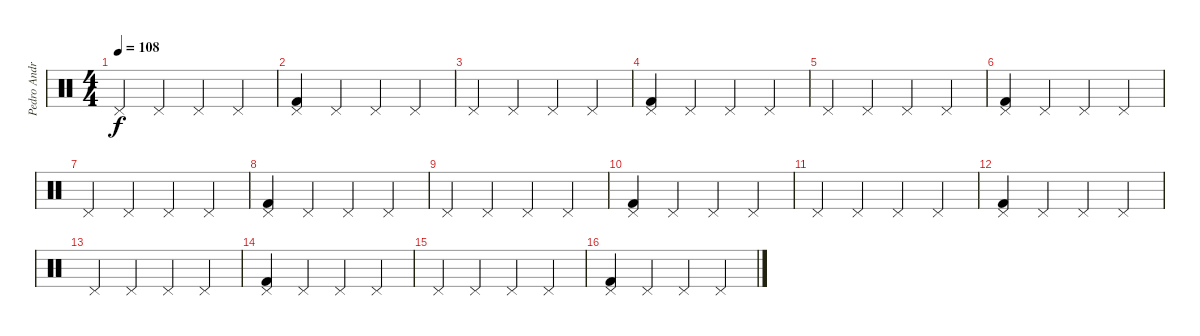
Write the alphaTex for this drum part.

\track ("Pedro Andreu" "Pedro Andr") {instrument percussion}
\staff {score}
\articulation defaults
\ts (4 4)
\tempo 108
\clef neutral
\ks c "Pedal Hi-Hat (hit)".4{dy f} "Pedal Hi-Hat (hit)".4 "Pedal Hi-Hat (hit)".4 "Pedal Hi-Hat (hit)".4
|
("Kick (hit) 2" "Pedal Hi-Hat (hit)").4 "Pedal Hi-Hat (hit)".4 "Pedal Hi-Hat (hit)".4 "Pedal Hi-Hat (hit)".4 |
"Pedal Hi-Hat (hit)".4 "Pedal Hi-Hat (hit)".4 "Pedal Hi-Hat (hit)".4 "Pedal Hi-Hat (hit)".4 |
("Kick (hit) 2" "Pedal Hi-Hat (hit)").4 "Pedal Hi-Hat (hit)".4 "Pedal Hi-Hat (hit)".4 "Pedal Hi-Hat (hit)".4 |
"Pedal Hi-Hat (hit)".4 "Pedal Hi-Hat (hit)".4 "Pedal Hi-Hat (hit)".4 "Pedal Hi-Hat (hit)".4 |
("Kick (hit) 2" "Pedal Hi-Hat (hit)").4 "Pedal Hi-Hat (hit)".4 "Pedal Hi-Hat (hit)".4 "Pedal Hi-Hat (hit)".4 |
"Pedal Hi-Hat (hit)".4 "Pedal Hi-Hat (hit)".4 "Pedal Hi-Hat (hit)".4 "Pedal Hi-Hat (hit)".4 |
("Kick (hit) 2" "Pedal Hi-Hat (hit)").4 "Pedal Hi-Hat (hit)".4 "Pedal Hi-Hat (hit)".4 "Pedal Hi-Hat (hit)".4 |
"Pedal Hi-Hat (hit)".4 "Pedal Hi-Hat (hit)".4 "Pedal Hi-Hat (hit)".4 "Pedal Hi-Hat (hit)".4 |
("Kick (hit) 2" "Pedal Hi-Hat (hit)").4 "Pedal Hi-Hat (hit)".4 "Pedal Hi-Hat (hit)".4 "Pedal Hi-Hat (hit)".4 |
"Pedal Hi-Hat (hit)".4 "Pedal Hi-Hat (hit)".4 "Pedal Hi-Hat (hit)".4 "Pedal Hi-Hat (hit)".4 |
("Kick (hit) 2" "Pedal Hi-Hat (hit)").4 "Pedal Hi-Hat (hit)".4 "Pedal Hi-Hat (hit)".4 "Pedal Hi-Hat (hit)".4 |
"Pedal Hi-Hat (hit)".4 "Pedal Hi-Hat (hit)".4 "Pedal Hi-Hat (hit)".4 "Pedal Hi-Hat (hit)".4 |
("Kick (hit) 2" "Pedal Hi-Hat (hit)").4 "Pedal Hi-Hat (hit)".4 "Pedal Hi-Hat (hit)".4 "Pedal Hi-Hat (hit)".4 |
"Pedal Hi-Hat (hit)".4 "Pedal Hi-Hat (hit)".4 "Pedal Hi-Hat (hit)".4 "Pedal Hi-Hat (hit)".4 |
("Kick (hit) 2" "Pedal Hi-Hat (hit)").4 "Pedal Hi-Hat (hit)".4 "Pedal Hi-Hat (hit)".4 "Pedal Hi-Hat (hit)".4
